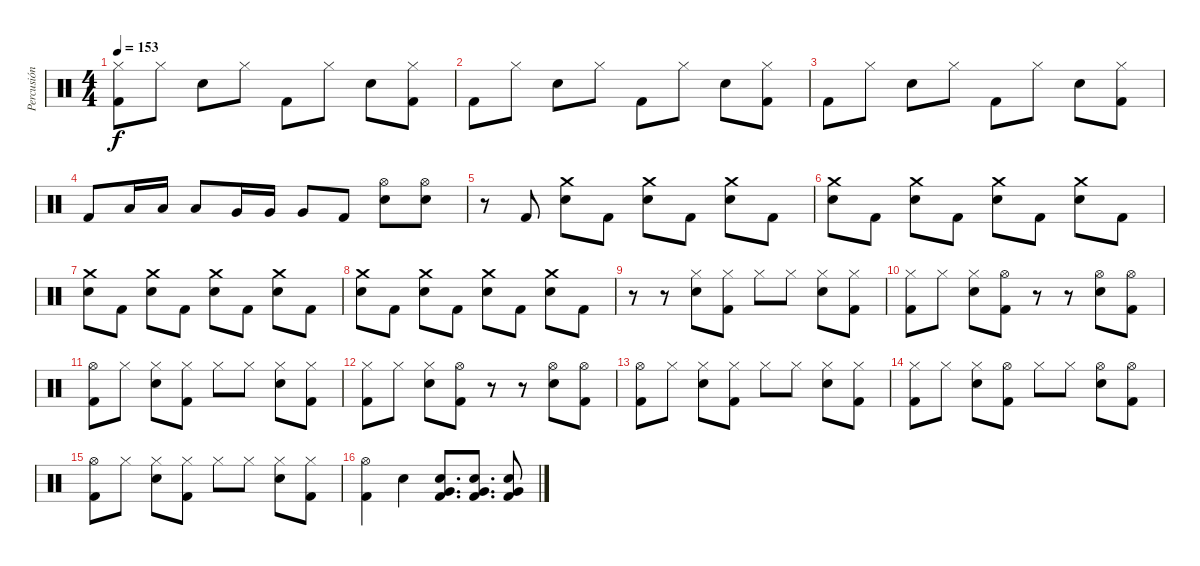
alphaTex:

\track ("Percusión" "Percusión") {instrument percussion}
\staff {score}
\articulation defaults
\ts (4 4)
\tempo 153
\clef neutral
\ks c
("Hi-Hat (closed)" "Kick (hit) 2").8{dy f} "Hi-Hat (closed)".8 "Electric Snare (hit)".8 "Hi-Hat (closed)".8 "Kick (hit) 2".8 "Hi-Hat (closed)".8 "Electric Snare (hit)".8 ("Hi-Hat (closed)" "Kick (hit) 2").8 |
"Kick (hit) 2".8 "Hi-Hat (closed)".8 "Electric Snare (hit)".8 "Hi-Hat (closed)".8 "Kick (hit) 2".8 "Hi-Hat (closed)".8 "Electric Snare (hit)".8 ("Hi-Hat (closed)" "Kick (hit) 2").8 |
"Kick (hit) 2".8 "Hi-Hat (closed)".8 "Electric Snare (hit)".8 "Hi-Hat (closed)".8 "Kick (hit) 2".8 "Hi-Hat (closed)".8 "Electric Snare (hit)".8 ("Hi-Hat (closed)" "Kick (hit) 2").8 |
"Kick (hit) 2".8 "Low Tom (hit)".16 "Low Tom (hit)".16 "Low Tom (hit)".8 "Very Low Tom (hit)".16 "Very Low Tom (hit)".16 "Very Low Tom (hit)".8 "Kick (hit) 2".8 ("Hi-Hat (open)" "Electric Snare (hit)").8 ("Hi-Hat (open)" "Electric Snare (hit)").8 |
r.8 "Kick (hit) 2".8 ("Crash medium (hit)" "Electric Snare (hit)").8 "Kick (hit) 2".8 ("Crash medium (hit)" "Electric Snare (hit)").8 "Kick (hit) 2".8 ("Crash medium (hit)" "Electric Snare (hit)").8 "Kick (hit) 2".8 |
("Crash medium (hit)" "Electric Snare (hit)").8 "Kick (hit) 2".8 ("Crash medium (hit)" "Electric Snare (hit)").8 "Kick (hit) 2".8 ("Crash medium (hit)" "Electric Snare (hit)").8 "Kick (hit) 2".8 ("Crash medium (hit)" "Electric Snare (hit)").8 "Kick (hit) 2".8 |
("Crash medium (hit)" "Electric Snare (hit)").8 "Kick (hit) 2".8 ("Crash medium (hit)" "Electric Snare (hit)").8 "Kick (hit) 2".8 ("Crash medium (hit)" "Electric Snare (hit)").8 "Kick (hit) 2".8 ("Crash medium (hit)" "Electric Snare (hit)").8 "Kick (hit) 2".8 |
("Crash medium (hit)" "Electric Snare (hit)").8 "Kick (hit) 2".8 ("Crash medium (hit)" "Electric Snare (hit)").8 "Kick (hit) 2".8 ("Crash medium (hit)" "Electric Snare (hit)").8 "Kick (hit) 2".8 ("Crash medium (hit)" "Electric Snare (hit)").8 "Kick (hit) 2".8 |
r.8 r.8 ("Hi-Hat (closed)" "Electric Snare (hit)").8 ("Hi-Hat (closed)" "Kick (hit) 2").8 "Hi-Hat (closed)".8 "Hi-Hat (closed)".8 ("Hi-Hat (closed)" "Electric Snare (hit)").8 ("Hi-Hat (closed)" "Kick (hit) 2").8 |
("Hi-Hat (closed)" "Kick (hit) 2").8 "Hi-Hat (closed)".8 ("Hi-Hat (closed)" "Electric Snare (hit)").8 ("Hi-Hat (open)" "Kick (hit) 2").8 r.8 r.8 ("Hi-Hat (open)" "Electric Snare (hit)").8 ("Hi-Hat (open)" "Kick (hit) 2").8 |
("Hi-Hat (open)" "Kick (hit) 2").8 "Hi-Hat (closed)".8 ("Hi-Hat (closed)" "Electric Snare (hit)").8 ("Hi-Hat (closed)" "Kick (hit) 2").8 "Hi-Hat (closed)".8 "Hi-Hat (closed)".8 ("Hi-Hat (closed)" "Electric Snare (hit)").8 ("Hi-Hat (closed)" "Kick (hit) 2").8 |
("Hi-Hat (closed)" "Kick (hit) 2").8 "Hi-Hat (closed)".8 ("Hi-Hat (closed)" "Electric Snare (hit)").8 ("Hi-Hat (open)" "Kick (hit) 2").8 r.8 r.8 ("Hi-Hat (open)" "Electric Snare (hit)").8 ("Hi-Hat (open)" "Kick (hit) 2").8 |
("Hi-Hat (open)" "Kick (hit) 2").8 "Hi-Hat (closed)".8 ("Hi-Hat (closed)" "Electric Snare (hit)").8 ("Hi-Hat (closed)" "Kick (hit) 2").8 "Hi-Hat (closed)".8 "Hi-Hat (closed)".8 ("Hi-Hat (closed)" "Electric Snare (hit)").8 ("Hi-Hat (closed)" "Kick (hit) 2").8 |
("Hi-Hat (closed)" "Kick (hit) 2").8 "Hi-Hat (closed)".8 ("Hi-Hat (closed)" "Electric Snare (hit)").8 ("Hi-Hat (open)" "Kick (hit) 2").8 "Hi-Hat (closed)".8 "Hi-Hat (closed)".8 ("Hi-Hat (open)" "Electric Snare (hit)").8 ("Hi-Hat (open)" "Kick (hit) 2").8 |
("Hi-Hat (open)" "Kick (hit) 2").8 "Hi-Hat (closed)".8 ("Hi-Hat (closed)" "Electric Snare (hit)").8 ("Hi-Hat (closed)" "Kick (hit) 2").8 "Hi-Hat (closed)".8 "Hi-Hat (closed)".8 ("Hi-Hat (closed)" "Electric Snare (hit)").8 ("Hi-Hat (closed)" "Kick (hit) 2").8 |
("Hi-Hat (open)" "Kick (hit) 2").4 "Electric Snare (hit)".4 ("Very Low Tom (hit)" "Electric Snare (hit)" "Kick (hit) 2").8{d} ("Very Low Tom (hit)" "Electric Snare (hit)" "Kick (hit) 2").8{d} ("Very Low Tom (hit)" "Electric Snare (hit)" "Kick (hit) 2").8
